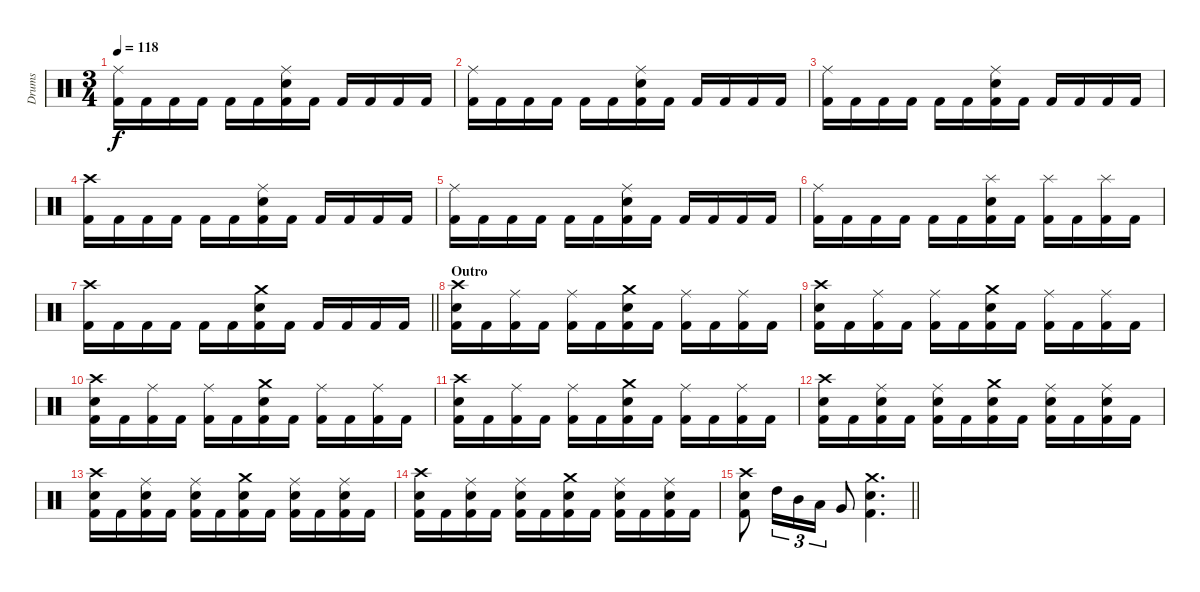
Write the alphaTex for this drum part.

\track ("Drums" "Drums") {instrument percussion}
\staff {score}
\articulation defaults
\ts (3 4)
\tempo 118
\clef neutral
\ks c
("Ride (middle)" "Kick (hit) 2").16{dy f} "Kick (hit) 2".16 "Kick (hit) 2".16 "Kick (hit) 2".16 "Kick (hit) 2".16 "Kick (hit) 2".16 ("Ride (middle)" "Snare (hit) 2" "Kick (hit) 2").16 "Kick (hit) 2".16 "Kick (hit) 2".16 "Kick (hit) 2".16 "Kick (hit) 2".16 "Kick (hit) 2".16 |
("Ride (middle)" "Kick (hit) 2").16 "Kick (hit) 2".16 "Kick (hit) 2".16 "Kick (hit) 2".16 "Kick (hit) 2".16 "Kick (hit) 2".16 ("Ride (middle)" "Snare (hit) 2" "Kick (hit) 2").16 "Kick (hit) 2".16 "Kick (hit) 2".16 "Kick (hit) 2".16 "Kick (hit) 2".16 "Kick (hit) 2".16 |
("Ride (middle)" "Kick (hit) 2").16 "Kick (hit) 2".16 "Kick (hit) 2".16 "Kick (hit) 2".16 "Kick (hit) 2".16 "Kick (hit) 2".16 ("Ride (middle)" "Snare (hit) 2" "Kick (hit) 2").16 "Kick (hit) 2".16 "Kick (hit) 2".16 "Kick (hit) 2".16 "Kick (hit) 2".16 "Kick (hit) 2".16 |
("Crash high (hit)" "Kick (hit) 2").16 "Kick (hit) 2".16 "Kick (hit) 2".16 "Kick (hit) 2".16 "Kick (hit) 2".16 "Kick (hit) 2".16 ("Ride (middle)" "Snare (hit) 2" "Kick (hit) 2").16 "Kick (hit) 2".16 "Kick (hit) 2".16 "Kick (hit) 2".16 "Kick (hit) 2".16 "Kick (hit) 2".16 |
("Ride (middle)" "Kick (hit) 2").16 "Kick (hit) 2".16 "Kick (hit) 2".16 "Kick (hit) 2".16 "Kick (hit) 2".16 "Kick (hit) 2".16 ("Ride (middle)" "Snare (hit) 2" "Kick (hit) 2").16 "Kick (hit) 2".16 "Kick (hit) 2".16 "Kick (hit) 2".16 "Kick (hit) 2".16 "Kick (hit) 2".16 |
("Ride (middle)" "Kick (hit) 2").16 "Kick (hit) 2".16 "Kick (hit) 2".16 "Kick (hit) 2".16 "Kick (hit) 2".16 "Kick (hit) 2".16 ("Splash (hit)" "Snare (hit) 2" "Kick (hit) 2").16 "Kick (hit) 2".16 ("Splash (hit)" "Kick (hit) 2").16 "Kick (hit) 2".16 ("Splash (hit)" "Kick (hit) 2").16 "Kick (hit) 2".16 |
\barLineRight lightlight
("Crash high (hit)" "Kick (hit) 2").16 "Kick (hit) 2".16 "Kick (hit) 2".16 "Kick (hit) 2".16 "Kick (hit) 2".16 "Kick (hit) 2".16 ("Crash medium (hit)" "Snare (hit) 2" "Kick (hit) 2").16 "Kick (hit) 2".16 "Kick (hit) 2".16 "Kick (hit) 2".16 "Kick (hit) 2".16 "Kick (hit) 2".16 |
\section ("" "Outro")
("Crash high (hit)" "Snare (hit) 2" "Kick (hit) 2").16 "Kick (hit) 2".16 ("Ride (middle)" "Kick (hit) 2").16 "Kick (hit) 2".16 ("Ride (middle)" "Kick (hit) 2").16 "Kick (hit) 2".16 ("Crash medium (hit)" "Snare (hit) 2" "Kick (hit) 2").16 "Kick (hit) 2".16 ("Ride (middle)" "Kick (hit) 2").16 "Kick (hit) 2".16 ("Ride (middle)" "Kick (hit) 2").16 "Kick (hit) 2".16 |
("Crash high (hit)" "Snare (hit) 2" "Kick (hit) 2").16 "Kick (hit) 2".16 ("Ride (middle)" "Kick (hit) 2").16 "Kick (hit) 2".16 ("Ride (middle)" "Kick (hit) 2").16 "Kick (hit) 2".16 ("Crash medium (hit)" "Snare (hit) 2" "Kick (hit) 2").16 "Kick (hit) 2".16 ("Ride (middle)" "Kick (hit) 2").16 "Kick (hit) 2".16 ("Ride (middle)" "Kick (hit) 2").16 "Kick (hit) 2".16 |
("Crash high (hit)" "Snare (hit) 2" "Kick (hit) 2").16 "Kick (hit) 2".16 ("Ride (middle)" "Kick (hit) 2").16 "Kick (hit) 2".16 ("Ride (middle)" "Kick (hit) 2").16 "Kick (hit) 2".16 ("Crash medium (hit)" "Snare (hit) 2" "Kick (hit) 2").16 "Kick (hit) 2".16 ("Ride (middle)" "Kick (hit) 2").16 "Kick (hit) 2".16 ("Ride (middle)" "Kick (hit) 2").16 "Kick (hit) 2".16 |
("Crash high (hit)" "Snare (hit) 2" "Kick (hit) 2").16 "Kick (hit) 2".16 ("Ride (middle)" "Kick (hit) 2").16 "Kick (hit) 2".16 ("Ride (middle)" "Kick (hit) 2").16 "Kick (hit) 2".16 ("Crash medium (hit)" "Snare (hit) 2" "Kick (hit) 2").16 "Kick (hit) 2".16 ("Ride (middle)" "Kick (hit) 2").16 "Kick (hit) 2".16 ("Ride (middle)" "Kick (hit) 2").16 "Kick (hit) 2".16 |
("Crash high (hit)" "Snare (hit) 2" "Kick (hit) 2").16 "Kick (hit) 2".16 ("Ride (middle)" "Snare (hit) 2" "Kick (hit) 2").16 "Kick (hit) 2".16 ("Ride (middle)" "Snare (hit) 2" "Kick (hit) 2").16 "Kick (hit) 2".16 ("Crash medium (hit)" "Snare (hit) 2" "Kick (hit) 2").16 "Kick (hit) 2".16 ("Ride (middle)" "Snare (hit) 2" "Kick (hit) 2").16 "Kick (hit) 2".16 ("Ride (middle)" "Snare (hit) 2" "Kick (hit) 2").16 "Kick (hit) 2".16 |
("Crash high (hit)" "Snare (hit) 2" "Kick (hit) 2").16 "Kick (hit) 2".16 ("Ride (middle)" "Snare (hit) 2" "Kick (hit) 2").16 "Kick (hit) 2".16 ("Ride (middle)" "Snare (hit) 2" "Kick (hit) 2").16 "Kick (hit) 2".16 ("Crash medium (hit)" "Snare (hit) 2" "Kick (hit) 2").16 "Kick (hit) 2".16 ("Ride (middle)" "Snare (hit) 2" "Kick (hit) 2").16 "Kick (hit) 2".16 ("Ride (middle)" "Snare (hit) 2" "Kick (hit) 2").16 "Kick (hit) 2".16 |
("Crash high (hit)" "Snare (hit) 2" "Kick (hit) 2").16 "Kick (hit) 2".16 ("Ride (middle)" "Snare (hit) 2" "Kick (hit) 2").16 "Kick (hit) 2".16 ("Ride (middle)" "Snare (hit) 2" "Kick (hit) 2").16 "Kick (hit) 2".16 ("Crash medium (hit)" "Snare (hit) 2" "Kick (hit) 2").16 "Kick (hit) 2".16 ("Ride (middle)" "Snare (hit) 2" "Kick (hit) 2").16 "Kick (hit) 2".16 ("Ride (middle)" "Snare (hit) 2" "Kick (hit) 2").16 "Kick (hit) 2".16 |
\barLineRight lightlight
("Crash high (hit)" "Snare (hit) 2" "Kick (hit) 2").8 "High Tom (hit)".16{tu (3 2)} "Mid Tom (hit)".16{tu (3 2)} "Low Tom (hit)".16{tu (3 2)} "Very Low Tom (hit)".8 ("Crash medium (hit)" "Snare (hit) 2" "Kick (hit) 2").4{d}
